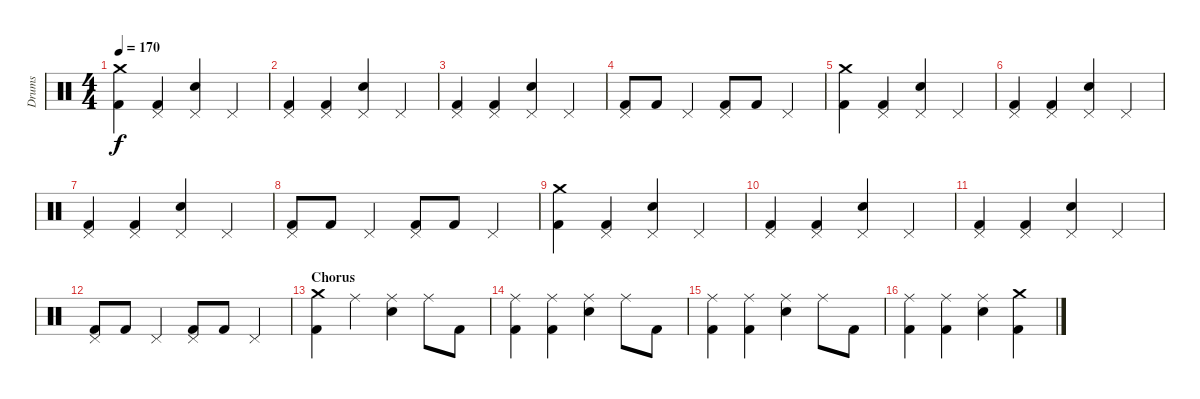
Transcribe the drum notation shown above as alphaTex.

\track ("Drums" "Drums") {instrument percussion}
\staff {score}
\articulation defaults
\ts (4 4)
\tempo 170
\clef neutral
\ks c
("Crash medium (hit)" "Kick (hit) 2").4{dy f} ("Pedal Hi-Hat (hit)" "Kick (hit) 2").4 ("Pedal Hi-Hat (hit)" "Electric Snare (hit)").4 "Pedal Hi-Hat (hit)".4 |
("Pedal Hi-Hat (hit)" "Kick (hit) 2").4 ("Pedal Hi-Hat (hit)" "Kick (hit) 2").4 ("Pedal Hi-Hat (hit)" "Electric Snare (hit)").4 "Pedal Hi-Hat (hit)".4 |
("Pedal Hi-Hat (hit)" "Kick (hit) 2").4 ("Pedal Hi-Hat (hit)" "Kick (hit) 2").4 ("Pedal Hi-Hat (hit)" "Electric Snare (hit)").4 "Pedal Hi-Hat (hit)".4 |
("Pedal Hi-Hat (hit)" "Kick (hit) 2").8 "Kick (hit) 2".8 "Pedal Hi-Hat (hit)".4 ("Pedal Hi-Hat (hit)" "Kick (hit) 2").8 "Kick (hit) 2".8 "Pedal Hi-Hat (hit)".4 |
("Crash medium (hit)" "Kick (hit) 2").4 ("Pedal Hi-Hat (hit)" "Kick (hit) 2").4 ("Pedal Hi-Hat (hit)" "Electric Snare (hit)").4 "Pedal Hi-Hat (hit)".4 |
("Pedal Hi-Hat (hit)" "Kick (hit) 2").4 ("Pedal Hi-Hat (hit)" "Kick (hit) 2").4 ("Pedal Hi-Hat (hit)" "Electric Snare (hit)").4 "Pedal Hi-Hat (hit)".4 |
("Pedal Hi-Hat (hit)" "Kick (hit) 2").4 ("Pedal Hi-Hat (hit)" "Kick (hit) 2").4 ("Pedal Hi-Hat (hit)" "Electric Snare (hit)").4 "Pedal Hi-Hat (hit)".4 |
("Pedal Hi-Hat (hit)" "Kick (hit) 2").8 "Kick (hit) 2".8 "Pedal Hi-Hat (hit)".4 ("Pedal Hi-Hat (hit)" "Kick (hit) 2").8 "Kick (hit) 2".8 "Pedal Hi-Hat (hit)".4 |
("Crash medium (hit)" "Kick (hit) 2").4 ("Pedal Hi-Hat (hit)" "Kick (hit) 2").4 ("Pedal Hi-Hat (hit)" "Electric Snare (hit)").4 "Pedal Hi-Hat (hit)".4 |
("Pedal Hi-Hat (hit)" "Kick (hit) 2").4 ("Pedal Hi-Hat (hit)" "Kick (hit) 2").4 ("Pedal Hi-Hat (hit)" "Electric Snare (hit)").4 "Pedal Hi-Hat (hit)".4 |
("Pedal Hi-Hat (hit)" "Kick (hit) 2").4 ("Pedal Hi-Hat (hit)" "Kick (hit) 2").4 ("Pedal Hi-Hat (hit)" "Electric Snare (hit)").4 "Pedal Hi-Hat (hit)".4 |
("Pedal Hi-Hat (hit)" "Kick (hit) 2").8 "Kick (hit) 2".8 "Pedal Hi-Hat (hit)".4 ("Pedal Hi-Hat (hit)" "Kick (hit) 2").8 "Kick (hit) 2".8 "Pedal Hi-Hat (hit)".4 |
\section ("" "Chorus")
("Crash medium (hit)" "Kick (hit) 2").4 "Ride (middle)".4 ("Ride (middle)" "Electric Snare (hit)").4 "Ride (middle)".8 "Kick (hit) 2".8 |
("Ride (middle)" "Kick (hit) 2").4 ("Ride (middle)" "Kick (hit) 2").4 ("Ride (middle)" "Electric Snare (hit)").4 "Ride (middle)".8 "Kick (hit) 2".8 |
("Ride (middle)" "Kick (hit) 2").4 ("Ride (middle)" "Kick (hit) 2").4 ("Ride (middle)" "Electric Snare (hit)").4 "Ride (middle)".8 "Kick (hit) 2".8 |
("Ride (middle)" "Kick (hit) 2").4 ("Ride (middle)" "Kick (hit) 2").4 ("Ride (middle)" "Electric Snare (hit)").4 ("Crash medium (hit)" "Kick (hit) 2").4
